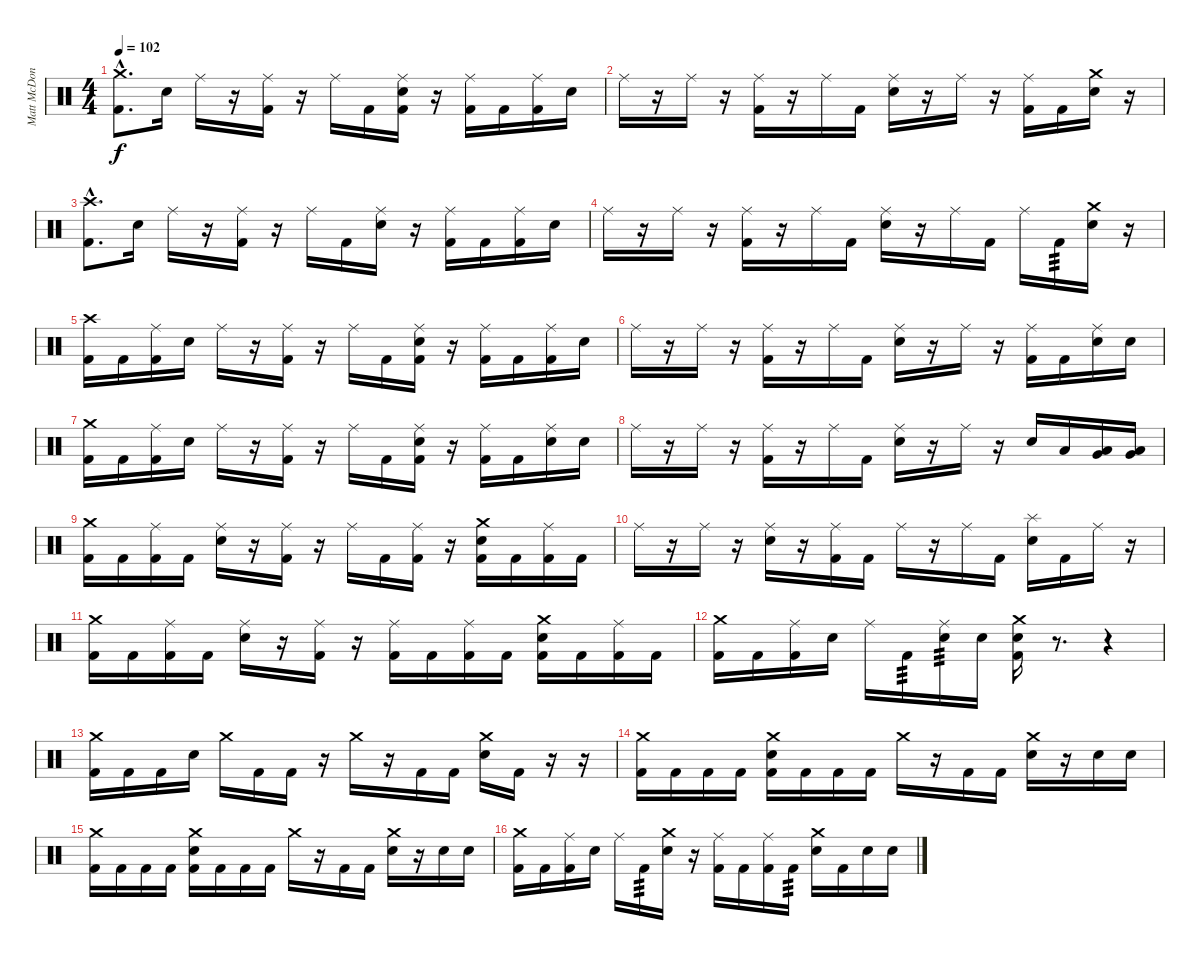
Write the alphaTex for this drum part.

\track ("Matt McDonough" "Matt McDon") {instrument percussion}
\staff {score}
\articulation defaults
\ts (4 4)
\tempo 102
\clef neutral
\ks c
("Crash medium (hit)"{hac} "Kick (hit) 2"{hac}).8{d dy f} "Electric Snare (hit)".16 "Ride (middle)".16 r.16 ("Ride (middle)" "Kick (hit) 2").16 r.16 "Ride (middle)".16 "Kick (hit) 2".16 ("Ride (middle)" "Electric Snare (hit)" "Kick (hit) 2").16 r.16 ("Ride (middle)" "Kick (hit) 2").16 "Kick (hit) 2".16 ("Ride (middle)" "Kick (hit) 2").16 "Electric Snare (hit)".16 |
"Ride (middle)".16 r.16 "Ride (middle)".16 r.16 ("Ride (middle)" "Kick (hit) 2").16 r.16 "Ride (middle)".16 "Kick (hit) 2".16 ("Ride (middle)" "Electric Snare (hit)").16 r.16 "Ride (middle)".16 r.16 ("Ride (middle)" "Kick (hit) 2").16 "Kick (hit) 2".16 ("Crash medium (hit)" "Electric Snare (hit)").16 r.16 |
("Crash high (hit)"{hac} "Kick (hit) 2"{hac}).8{d} "Electric Snare (hit)".16 "Ride (middle)".16 r.16 ("Ride (middle)" "Kick (hit) 2").16 r.16 "Ride (middle)".16 "Kick (hit) 2".16 ("Ride (middle)" "Electric Snare (hit)").16 r.16 ("Ride (middle)" "Kick (hit) 2").16 "Kick (hit) 2".16 ("Ride (middle)" "Kick (hit) 2").16 "Electric Snare (hit)".16 |
"Ride (middle)".16 r.16 "Ride (middle)".16 r.16 ("Ride (middle)" "Kick (hit) 2").16 r.16 "Ride (middle)".16 "Kick (hit) 2".16 ("Ride (middle)" "Electric Snare (hit)").16 r.16 "Ride (middle)".16 "Kick (hit) 2".16 "Ride (middle)".16 "Kick (hit) 2".16{tp 3} ("Crash medium (hit)" "Electric Snare (hit)").16 r.16 |
("Crash high (hit)" "Kick (hit) 2").16 "Kick (hit) 2".16 ("Ride (middle)" "Kick (hit) 2").16 "Electric Snare (hit)".16 "Ride (middle)".16 r.16 ("Ride (middle)" "Kick (hit) 2").16 r.16 "Ride (middle)".16 "Kick (hit) 2".16 ("Ride (middle)" "Electric Snare (hit)" "Kick (hit) 2").16 r.16 ("Ride (middle)" "Kick (hit) 2").16 "Kick (hit) 2".16 ("Ride (middle)" "Kick (hit) 2").16 "Electric Snare (hit)".16 |
"Ride (middle)".16 r.16 "Ride (middle)".16 r.16 ("Ride (middle)" "Kick (hit) 2").16 r.16 "Ride (middle)".16 "Kick (hit) 2".16 ("Ride (middle)" "Electric Snare (hit)").16 r.16 "Ride (middle)".16 r.16 ("Ride (middle)" "Kick (hit) 2").16 "Kick (hit) 2".16 ("Ride (middle)" "Electric Snare (hit)").16 "Electric Snare (hit)".16 |
("Crash medium (hit)" "Kick (hit) 2").16 "Kick (hit) 2".16 ("Ride (middle)" "Kick (hit) 2").16 "Electric Snare (hit)".16 "Ride (middle)".16 r.16 ("Ride (middle)" "Kick (hit) 2").16 r.16 "Ride (middle)".16 "Kick (hit) 2".16 ("Ride (middle)" "Electric Snare (hit)" "Kick (hit) 2").16 r.16 ("Ride (middle)" "Kick (hit) 2").16 "Kick (hit) 2".16 ("Ride (middle)" "Electric Snare (hit)").16 "Electric Snare (hit)".16 |
"Ride (middle)".16 r.16 "Ride (middle)".16 r.16 ("Ride (middle)" "Kick (hit) 2").16 r.16 "Ride (middle)".16 "Kick (hit) 2".16 ("Ride (middle)" "Electric Snare (hit)").16 r.16 "Ride (middle)".16 r.16 "Electric Snare (hit)".16 "Low Tom (hit)".16 ("Very Low Tom (hit)" "Low Floor Tom (hit)").16 ("Very Low Tom (hit)" "Low Floor Tom (hit)").16 |
("Crash medium (hit)" "Kick (hit) 2").16 "Kick (hit) 2".16 ("Ride (middle)" "Kick (hit) 2").16 "Kick (hit) 2".16 ("Ride (middle)" "Electric Snare (hit)").16 r.16 ("Ride (middle)" "Kick (hit) 2").16 r.16 "Ride (middle)".16 "Kick (hit) 2".16 ("Ride (middle)" "Kick (hit) 2").16 r.16 ("Crash medium (hit)" "Electric Snare (hit)" "Kick (hit) 2").16 "Kick (hit) 2".16 ("Ride (middle)" "Kick (hit) 2").16 "Kick (hit) 2".16 |
"Ride (middle)".16 r.16 "Ride (middle)".16 r.16 ("Ride (middle)" "Electric Snare (hit)").16 r.16 ("Ride (middle)" "Kick (hit) 2").16 "Kick (hit) 2".16 "Ride (middle)".16 r.16 "Ride (middle)".16 "Kick (hit) 2".16 ("Splash (hit)" "Electric Snare (hit)").16 "Kick (hit) 2".16 "Ride (middle)".16 r.16 |
("Crash medium (hit)" "Kick (hit) 2").16 "Kick (hit) 2".16 ("Ride (middle)" "Kick (hit) 2").16 "Kick (hit) 2".16 ("Ride (middle)" "Electric Snare (hit)").16 r.16 ("Ride (middle)" "Kick (hit) 2").16 r.16 ("Ride (middle)" "Kick (hit) 2").16 "Kick (hit) 2".16 ("Ride (middle)" "Kick (hit) 2").16 "Kick (hit) 2".16 ("Crash medium (hit)" "Electric Snare (hit)" "Kick (hit) 2").16 "Kick (hit) 2".16 ("Ride (middle)" "Kick (hit) 2").16 "Kick (hit) 2".16 |
("Crash medium (hit)" "Kick (hit) 2").16 "Kick (hit) 2".16 ("Ride (middle)" "Kick (hit) 2").16 "Electric Snare (hit)".16 "Ride (middle)".16 "Kick (hit) 2".16{tp 3} ("Ride (middle)" "Electric Snare (hit)").16{tp 3} "Electric Snare (hit)".16 ("Crash medium (hit)" "Electric Snare (hit)" "Kick (hit) 2").16 r.8{d volume 0} r.4 |
("Crash medium (hit)" "Kick (hit) 2").16{volume 16} "Kick (hit) 2".16 "Kick (hit) 2".16 "Electric Snare (hit)".16 "Crash medium (hit)".16 "Kick (hit) 2".16 "Kick (hit) 2".16 r.16 "Crash medium (hit)".16 r.16 "Kick (hit) 2".16 "Kick (hit) 2".16 ("Crash medium (hit)" "Electric Snare (hit)").16 "Kick (hit) 2".16 r.16 r.16 |
("Crash medium (hit)" "Kick (hit) 2").16 "Kick (hit) 2".16 "Kick (hit) 2".16 "Kick (hit) 2".16 ("Crash medium (hit)" "Electric Snare (hit)" "Kick (hit) 2").16 "Kick (hit) 2".16 "Kick (hit) 2".16 "Kick (hit) 2".16 "Crash medium (hit)".16 r.16 "Kick (hit) 2".16 "Kick (hit) 2".16 ("Crash medium (hit)" "Electric Snare (hit)").16 r.16 "Electric Snare (hit)".16 "Electric Snare (hit)".16 |
("Crash medium (hit)" "Kick (hit) 2").16 "Kick (hit) 2".16 "Kick (hit) 2".16 "Kick (hit) 2".16 ("Crash medium (hit)" "Electric Snare (hit)" "Kick (hit) 2").16 "Kick (hit) 2".16 "Kick (hit) 2".16 "Kick (hit) 2".16 "Crash medium (hit)".16 r.16 "Kick (hit) 2".16 "Kick (hit) 2".16 ("Crash medium (hit)" "Electric Snare (hit)").16 r.16 "Electric Snare (hit)".16 "Electric Snare (hit)".16 |
("Crash medium (hit)" "Kick (hit) 2").16 "Kick (hit) 2".16 ("Ride (middle)" "Kick (hit) 2").16 "Electric Snare (hit)".16 "Ride (middle)".16 "Kick (hit) 2".16{tp 3} ("Crash medium (hit)" "Electric Snare (hit)").16 r.16 ("Ride (middle)" "Kick (hit) 2").16 "Kick (hit) 2".16 ("Ride (middle)" "Kick (hit) 2").16 "Kick (hit) 2".16{tp 3} ("Crash medium (hit)" "Electric Snare (hit)").16 "Kick (hit) 2".16 "Electric Snare (hit)".16 "Electric Snare (hit)".16
